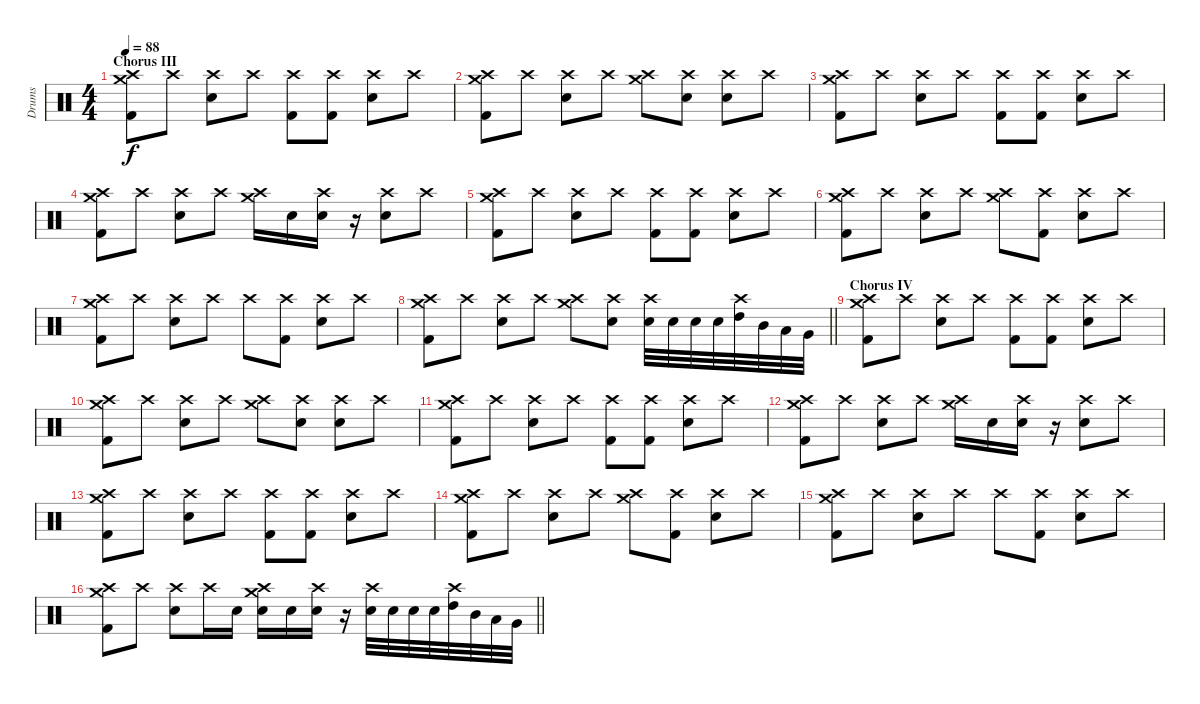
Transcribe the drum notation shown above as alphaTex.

\track ("Drums" "Drums") {instrument percussion}
\staff {score}
\articulation defaults
\ts (4 4)
\section ("" "Chorus III")
\tempo 88
\clef neutral
\ks c
("Crash high (hit)" "Crash medium (hit)" "Kick (hit) 2").8{dy f} "Crash high (hit)".8 ("Crash high (hit)" "Electric Snare (hit)").8 "Crash high (hit)".8 ("Crash high (hit)" "Kick (hit) 2").8 ("Crash high (hit)" "Kick (hit) 2").8 ("Crash high (hit)" "Electric Snare (hit)").8 "Crash high (hit)".8 |
("Crash high (hit)" "Crash medium (hit)" "Kick (hit) 2").8 "Crash high (hit)".8 ("Crash high (hit)" "Electric Snare (hit)").8 "Crash high (hit)".8 ("Crash high (hit)" "Crash medium (hit)").8 ("Crash high (hit)" "Electric Snare (hit)").8 ("Crash high (hit)" "Electric Snare (hit)").8 "Crash high (hit)".8 |
("Crash high (hit)" "Crash medium (hit)" "Kick (hit) 2").8 "Crash high (hit)".8 ("Crash high (hit)" "Electric Snare (hit)").8 "Crash high (hit)".8 ("Crash high (hit)" "Kick (hit) 2").8 ("Crash high (hit)" "Kick (hit) 2").8 ("Crash high (hit)" "Electric Snare (hit)").8 "Crash high (hit)".8 |
("Crash high (hit)" "Crash medium (hit)" "Kick (hit) 2").8 "Crash high (hit)".8 ("Crash high (hit)" "Electric Snare (hit)").8 "Crash high (hit)".8 ("Crash high (hit)" "Crash medium (hit)").16 "Electric Snare (hit)".16 ("Crash high (hit)" "Electric Snare (hit)").16 r.16 ("Crash high (hit)" "Electric Snare (hit)").8 "Crash high (hit)".8 |
("Crash high (hit)" "Crash medium (hit)" "Kick (hit) 2").8 "Crash high (hit)".8 ("Crash high (hit)" "Electric Snare (hit)").8 "Crash high (hit)".8 ("Crash high (hit)" "Kick (hit) 2").8 ("Crash high (hit)" "Kick (hit) 2").8 ("Crash high (hit)" "Electric Snare (hit)").8 "Crash high (hit)".8 |
("Crash high (hit)" "Crash medium (hit)" "Kick (hit) 2").8 "Crash high (hit)".8 ("Crash high (hit)" "Electric Snare (hit)").8 "Crash high (hit)".8 ("Crash high (hit)" "Crash medium (hit)").8 ("Crash high (hit)" "Kick (hit) 2").8 ("Crash high (hit)" "Electric Snare (hit)").8 "Crash high (hit)".8 |
("Crash high (hit)" "Crash medium (hit)" "Kick (hit) 2").8 "Crash high (hit)".8 ("Crash high (hit)" "Electric Snare (hit)").8 "Crash high (hit)".8 "Crash high (hit)".8 ("Crash high (hit)" "Kick (hit) 2").8 ("Crash high (hit)" "Electric Snare (hit)").8 "Crash high (hit)".8 |
\barLineRight lightlight
("Crash high (hit)" "Crash medium (hit)" "Kick (hit) 2").8 "Crash high (hit)".8 ("Crash high (hit)" "Electric Snare (hit)").8 "Crash high (hit)".8 ("Crash high (hit)" "Crash medium (hit)").8 ("Crash high (hit)" "Electric Snare (hit)").8 ("Crash high (hit)" "Electric Snare (hit)").32 "Electric Snare (hit)".32 "Electric Snare (hit)".32 "Electric Snare (hit)".32 ("Crash high (hit)" "High Tom (hit)").32 "Mid Tom (hit)".32 "Low Tom (hit)".32 "Very Low Tom (hit)".32 |
\section ("" "Chorus IV")
("Crash high (hit)" "Crash medium (hit)" "Kick (hit) 2").8 "Crash high (hit)".8 ("Crash high (hit)" "Electric Snare (hit)").8 "Crash high (hit)".8 ("Crash high (hit)" "Kick (hit) 2").8 ("Crash high (hit)" "Kick (hit) 2").8 ("Crash high (hit)" "Electric Snare (hit)").8 "Crash high (hit)".8 |
("Crash high (hit)" "Crash medium (hit)" "Kick (hit) 2").8 "Crash high (hit)".8 ("Crash high (hit)" "Electric Snare (hit)").8 "Crash high (hit)".8 ("Crash high (hit)" "Crash medium (hit)").8 ("Crash high (hit)" "Electric Snare (hit)").8 ("Crash high (hit)" "Electric Snare (hit)").8 "Crash high (hit)".8 |
("Crash high (hit)" "Crash medium (hit)" "Kick (hit) 2").8 "Crash high (hit)".8 ("Crash high (hit)" "Electric Snare (hit)").8 "Crash high (hit)".8 ("Crash high (hit)" "Kick (hit) 2").8 ("Crash high (hit)" "Kick (hit) 2").8 ("Crash high (hit)" "Electric Snare (hit)").8 "Crash high (hit)".8 |
("Crash high (hit)" "Crash medium (hit)" "Kick (hit) 2").8 "Crash high (hit)".8 ("Crash high (hit)" "Electric Snare (hit)").8 "Crash high (hit)".8 ("Crash high (hit)" "Crash medium (hit)").16 "Electric Snare (hit)".16 ("Crash high (hit)" "Electric Snare (hit)").16 r.16 ("Crash high (hit)" "Electric Snare (hit)").8 "Crash high (hit)".8 |
("Crash high (hit)" "Crash medium (hit)" "Kick (hit) 2").8 "Crash high (hit)".8 ("Crash high (hit)" "Electric Snare (hit)").8 "Crash high (hit)".8 ("Crash high (hit)" "Kick (hit) 2").8 ("Crash high (hit)" "Kick (hit) 2").8 ("Crash high (hit)" "Electric Snare (hit)").8 "Crash high (hit)".8 |
("Crash high (hit)" "Crash medium (hit)" "Kick (hit) 2").8 "Crash high (hit)".8 ("Crash high (hit)" "Electric Snare (hit)").8 "Crash high (hit)".8 ("Crash high (hit)" "Crash medium (hit)").8 ("Crash high (hit)" "Kick (hit) 2").8 ("Crash high (hit)" "Electric Snare (hit)").8 "Crash high (hit)".8 |
("Crash high (hit)" "Crash medium (hit)" "Kick (hit) 2").8 "Crash high (hit)".8 ("Crash high (hit)" "Electric Snare (hit)").8 "Crash high (hit)".8 "Crash high (hit)".8 ("Crash high (hit)" "Kick (hit) 2").8 ("Crash high (hit)" "Electric Snare (hit)").8 "Crash high (hit)".8 |
\barLineRight lightlight
("Crash high (hit)" "Crash medium (hit)" "Kick (hit) 2").8 "Crash high (hit)".8 ("Crash high (hit)" "Electric Snare (hit)").8 "Crash high (hit)".16 "Electric Snare (hit)".16 ("Crash high (hit)" "Crash medium (hit)" "Electric Snare (hit)").16 "Electric Snare (hit)".16 ("Crash high (hit)" "Electric Snare (hit)").16 r.16 ("Crash high (hit)" "Electric Snare (hit)").32 "Electric Snare (hit)".32 "Electric Snare (hit)".32 "Electric Snare (hit)".32 ("Crash high (hit)" "High Tom (hit)").32 "Mid Tom (hit)".32 "Low Tom (hit)".32 "Very Low Tom (hit)".32
